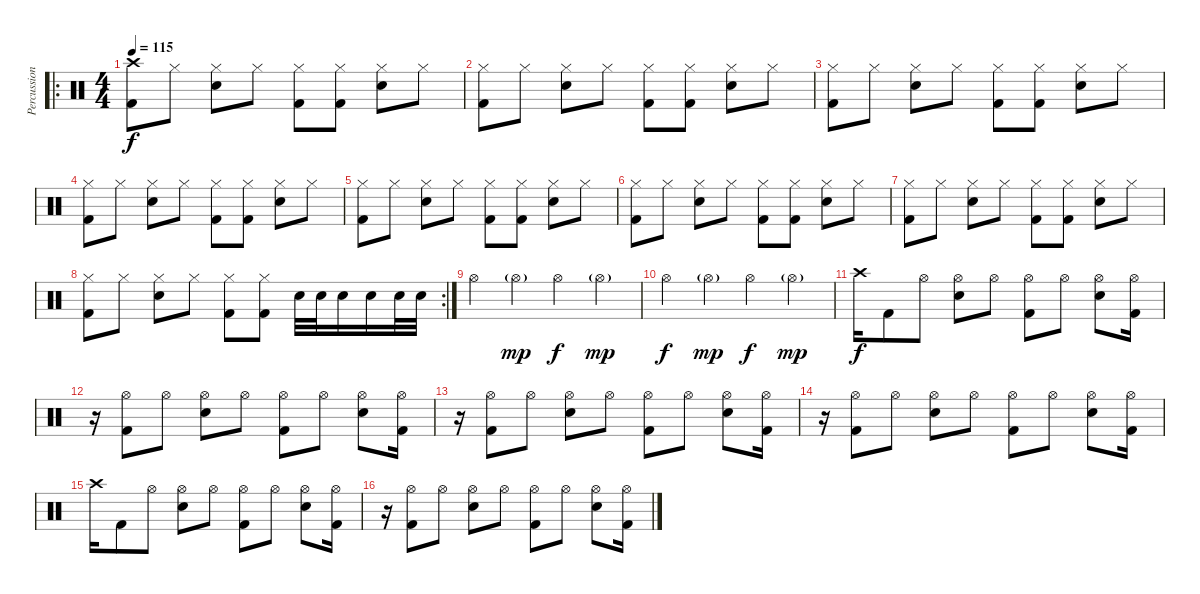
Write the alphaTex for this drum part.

\track ("Percussion" "Percussion") {instrument percussion}
\staff {score}
\articulation defaults
\ro
\ts (4 4)
\tempo 115
\clef neutral
\ks c
("Crash high (hit)" "Kick (hit) 2").8{dy f} "Hi-Hat (closed)".8 ("Hi-Hat (closed)" "Snare (hit) 2").8 "Hi-Hat (closed)".8 ("Hi-Hat (closed)" "Kick (hit) 2").8 ("Hi-Hat (closed)" "Kick (hit) 2").8 ("Hi-Hat (closed)" "Snare (hit) 2").8 "Hi-Hat (closed)".8 |
("Hi-Hat (closed)" "Kick (hit) 2").8 "Hi-Hat (closed)".8 ("Hi-Hat (closed)" "Snare (hit) 2").8 "Hi-Hat (closed)".8 ("Hi-Hat (closed)" "Kick (hit) 2").8 ("Hi-Hat (closed)" "Kick (hit) 2").8 ("Hi-Hat (closed)" "Snare (hit) 2").8 "Hi-Hat (closed)".8 |
("Hi-Hat (closed)" "Kick (hit) 2").8 "Hi-Hat (closed)".8 ("Hi-Hat (closed)" "Snare (hit) 2").8 "Hi-Hat (closed)".8 ("Hi-Hat (closed)" "Kick (hit) 2").8 ("Hi-Hat (closed)" "Kick (hit) 2").8 ("Hi-Hat (closed)" "Snare (hit) 2").8 "Hi-Hat (closed)".8 |
("Hi-Hat (closed)" "Kick (hit) 2").8 "Hi-Hat (closed)".8 ("Hi-Hat (closed)" "Snare (hit) 2").8 "Hi-Hat (closed)".8 ("Hi-Hat (closed)" "Kick (hit) 2").8 ("Hi-Hat (closed)" "Kick (hit) 2").8 ("Hi-Hat (closed)" "Snare (hit) 2").8 "Hi-Hat (closed)".8 |
("Hi-Hat (closed)" "Kick (hit) 2").8 "Hi-Hat (closed)".8 ("Hi-Hat (closed)" "Snare (hit) 2").8 "Hi-Hat (closed)".8 ("Hi-Hat (closed)" "Kick (hit) 2").8 ("Hi-Hat (closed)" "Kick (hit) 2").8 ("Hi-Hat (closed)" "Snare (hit) 2").8 "Hi-Hat (closed)".8 |
("Hi-Hat (closed)" "Kick (hit) 2").8 "Hi-Hat (closed)".8 ("Hi-Hat (closed)" "Snare (hit) 2").8 "Hi-Hat (closed)".8 ("Hi-Hat (closed)" "Kick (hit) 2").8 ("Hi-Hat (closed)" "Kick (hit) 2").8 ("Hi-Hat (closed)" "Snare (hit) 2").8 "Hi-Hat (closed)".8 |
("Hi-Hat (closed)" "Kick (hit) 2").8 "Hi-Hat (closed)".8 ("Hi-Hat (closed)" "Snare (hit) 2").8 "Hi-Hat (closed)".8 ("Hi-Hat (closed)" "Kick (hit) 2").8 ("Hi-Hat (closed)" "Kick (hit) 2").8 ("Hi-Hat (closed)" "Snare (hit) 2").8 "Hi-Hat (closed)".8 |
\rc 2
("Hi-Hat (closed)" "Kick (hit) 2").8 "Hi-Hat (closed)".8 ("Hi-Hat (closed)" "Snare (hit) 2").8 "Hi-Hat (closed)".8 ("Hi-Hat (closed)" "Kick (hit) 2").8 ("Hi-Hat (closed)" "Kick (hit) 2").8 "Snare (hit) 2".32 "Snare (hit) 2".32 "Snare (hit) 2".16 "Snare (hit) 2".16 "Snare (hit) 2".32 "Snare (hit) 2".32 |
"Hi-Hat (open)".4 "Hi-Hat (open)"{g}.4{dy mp} "Hi-Hat (open)".4{dy f} "Hi-Hat (open)"{g}.4{dy mp} |
"Hi-Hat (open)".4{dy f} "Hi-Hat (open)"{g}.4{dy mp} "Hi-Hat (open)".4{dy f} "Hi-Hat (open)"{g}.4{dy mp} |
"Crash high (hit)".16{dy f} "Kick (hit) 2".8 "Hi-Hat (open)".8 ("Hi-Hat (open)" "Snare (hit) 2").8 "Hi-Hat (open)".8 ("Hi-Hat (open)" "Kick (hit) 2").8 "Hi-Hat (open)".8 ("Hi-Hat (open)" "Snare (hit) 2").8 ("Hi-Hat (open)" "Kick (hit) 2").16 |
r.16 ("Hi-Hat (open)" "Kick (hit) 2").8 "Hi-Hat (open)".8 ("Hi-Hat (open)" "Snare (hit) 2").8 "Hi-Hat (open)".8 ("Hi-Hat (open)" "Kick (hit) 2").8 "Hi-Hat (open)".8 ("Hi-Hat (open)" "Snare (hit) 2").8 ("Hi-Hat (open)" "Kick (hit) 2").16 |
r.16 ("Hi-Hat (open)" "Kick (hit) 2").8 "Hi-Hat (open)".8 ("Hi-Hat (open)" "Snare (hit) 2").8 "Hi-Hat (open)".8 ("Hi-Hat (open)" "Kick (hit) 2").8 "Hi-Hat (open)".8 ("Hi-Hat (open)" "Snare (hit) 2").8 ("Hi-Hat (open)" "Kick (hit) 2").16 |
r.16 ("Hi-Hat (open)" "Kick (hit) 2").8 "Hi-Hat (open)".8 ("Hi-Hat (open)" "Snare (hit) 2").8 "Hi-Hat (open)".8 ("Hi-Hat (open)" "Kick (hit) 2").8 "Hi-Hat (open)".8 ("Hi-Hat (open)" "Snare (hit) 2").8 ("Hi-Hat (open)" "Kick (hit) 2").16 |
"Crash high (hit)".16 "Kick (hit) 2".8 "Hi-Hat (open)".8 ("Hi-Hat (open)" "Snare (hit) 2").8 "Hi-Hat (open)".8 ("Hi-Hat (open)" "Kick (hit) 2").8 "Hi-Hat (open)".8 ("Hi-Hat (open)" "Snare (hit) 2").8 ("Hi-Hat (open)" "Kick (hit) 2").16 |
r.16 ("Hi-Hat (open)" "Kick (hit) 2").8 "Hi-Hat (open)".8 ("Hi-Hat (open)" "Snare (hit) 2").8 "Hi-Hat (open)".8 ("Hi-Hat (open)" "Kick (hit) 2").8 "Hi-Hat (open)".8 ("Hi-Hat (open)" "Snare (hit) 2").8 ("Hi-Hat (open)" "Kick (hit) 2").16
